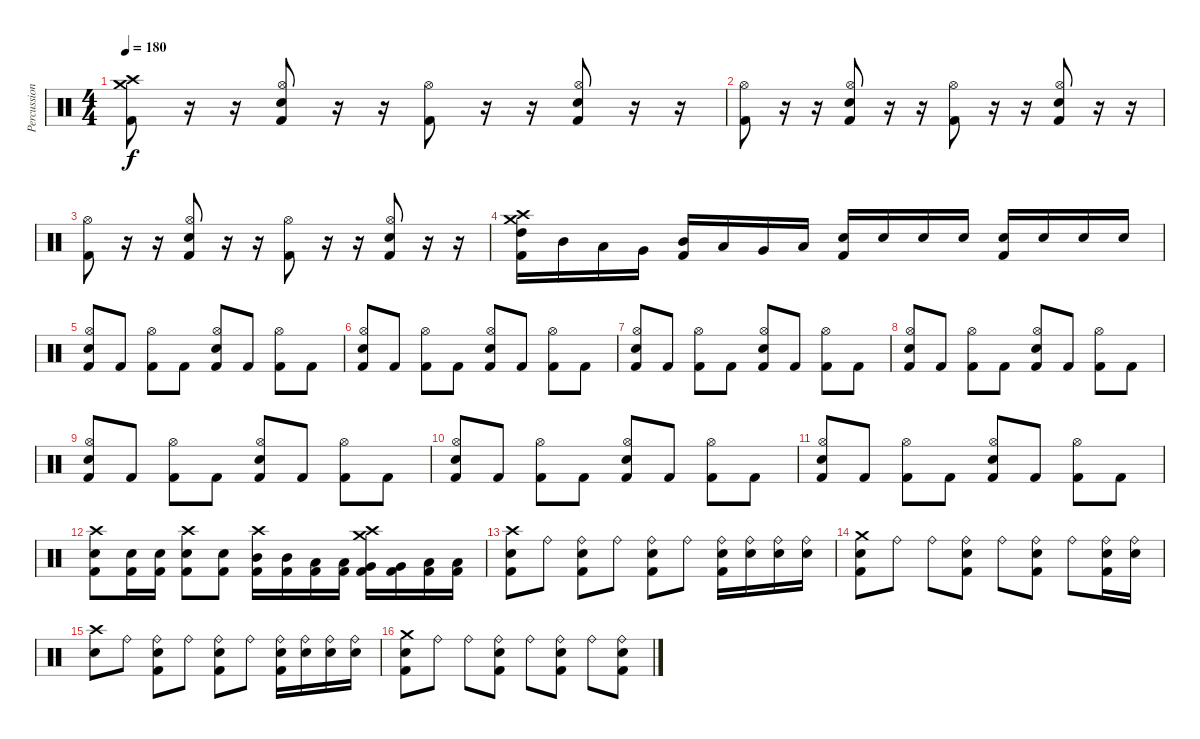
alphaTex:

\track ("Percussion" "Percussion") {instrument percussion}
\staff {score}
\articulation defaults
\ts (4 4)
\tempo 180
\clef neutral
\ks c
("Crash high (hit)" "Crash medium (hit)" "Kick (hit) 2").8{dy f} r.16 r.16 ("Hi-Hat (open)" "Electric Snare (hit)" "Kick (hit) 2").8 r.16 r.16 ("Hi-Hat (open)" "Kick (hit) 2").8 r.16 r.16 ("Hi-Hat (open)" "Electric Snare (hit)" "Kick (hit) 2").8 r.16 r.16 |
("Hi-Hat (open)" "Kick (hit) 2").8 r.16 r.16 ("Hi-Hat (open)" "Electric Snare (hit)" "Kick (hit) 2").8 r.16 r.16 ("Hi-Hat (open)" "Kick (hit) 2").8 r.16 r.16 ("Hi-Hat (open)" "Electric Snare (hit)" "Kick (hit) 2").8 r.16 r.16 |
("Hi-Hat (open)" "Kick (hit) 2").8 r.16 r.16 ("Hi-Hat (open)" "Electric Snare (hit)" "Kick (hit) 2").8 r.16 r.16 ("Hi-Hat (open)" "Kick (hit) 2").8 r.16 r.16 ("Hi-Hat (open)" "Electric Snare (hit)" "Kick (hit) 2").8 r.16 r.16 |
("Crash medium (hit)" "Crash high (hit)" "High Tom (hit)" "Kick (hit) 2").16 "Mid Tom (hit)".16 "Low Tom (hit)".16 "Very Low Tom (hit)".16 ("Mid Tom (hit)" "Kick (hit) 2").16 "Low Tom (hit)".16 "Very Low Tom (hit)".16 "Low Floor Tom (hit)".16 ("Electric Snare (hit)" "Kick (hit) 2").16 "Electric Snare (hit)".16 "Electric Snare (hit)".16 "Electric Snare (hit)".16 ("Electric Snare (hit)" "Kick (hit) 2").16 "Electric Snare (hit)".16 "Electric Snare (hit)".16 "Electric Snare (hit)".16 |
("Hi-Hat (open)" "Electric Snare (hit)" "Kick (hit) 2").8 "Kick (hit) 2".8 ("Hi-Hat (open)" "Kick (hit) 2").8 "Kick (hit) 2".8 ("Hi-Hat (open)" "Electric Snare (hit)" "Kick (hit) 2").8 "Kick (hit) 2".8 ("Hi-Hat (open)" "Kick (hit) 2").8 "Kick (hit) 2".8 |
("Hi-Hat (open)" "Electric Snare (hit)" "Kick (hit) 2").8 "Kick (hit) 2".8 ("Hi-Hat (open)" "Kick (hit) 2").8 "Kick (hit) 2".8 ("Hi-Hat (open)" "Electric Snare (hit)" "Kick (hit) 2").8 "Kick (hit) 2".8 ("Hi-Hat (open)" "Kick (hit) 2").8 "Kick (hit) 2".8 |
("Hi-Hat (open)" "Electric Snare (hit)" "Kick (hit) 2").8 "Kick (hit) 2".8 ("Hi-Hat (open)" "Kick (hit) 2").8 "Kick (hit) 2".8 ("Hi-Hat (open)" "Electric Snare (hit)" "Kick (hit) 2").8 "Kick (hit) 2".8 ("Hi-Hat (open)" "Kick (hit) 2").8 "Kick (hit) 2".8 |
("Hi-Hat (open)" "Electric Snare (hit)" "Kick (hit) 2").8 "Kick (hit) 2".8 ("Hi-Hat (open)" "Kick (hit) 2").8 "Kick (hit) 2".8 ("Hi-Hat (open)" "Electric Snare (hit)" "Kick (hit) 2").8 "Kick (hit) 2".8 ("Hi-Hat (open)" "Kick (hit) 2").8 "Kick (hit) 2".8 |
("Hi-Hat (open)" "Electric Snare (hit)" "Kick (hit) 2").8 "Kick (hit) 2".8 ("Hi-Hat (open)" "Kick (hit) 2").8 "Kick (hit) 2".8 ("Hi-Hat (open)" "Electric Snare (hit)" "Kick (hit) 2").8 "Kick (hit) 2".8 ("Hi-Hat (open)" "Kick (hit) 2").8 "Kick (hit) 2".8 |
("Hi-Hat (open)" "Electric Snare (hit)" "Kick (hit) 2").8 "Kick (hit) 2".8 ("Hi-Hat (open)" "Kick (hit) 2").8 "Kick (hit) 2".8 ("Hi-Hat (open)" "Electric Snare (hit)" "Kick (hit) 2").8 "Kick (hit) 2".8 ("Hi-Hat (open)" "Kick (hit) 2").8 "Kick (hit) 2".8 |
("Hi-Hat (open)" "Electric Snare (hit)" "Kick (hit) 2").8 "Kick (hit) 2".8 ("Hi-Hat (open)" "Kick (hit) 2").8 "Kick (hit) 2".8 ("Hi-Hat (open)" "Electric Snare (hit)" "Kick (hit) 2").8 "Kick (hit) 2".8 ("Hi-Hat (open)" "Kick (hit) 2").8 "Kick (hit) 2".8 |
("Crash high (hit)" "Electric Snare (hit)" "Kick (hit) 2").8 ("Electric Snare (hit)" "Kick (hit) 2").16 ("Electric Snare (hit)" "Kick (hit) 2").16 ("Crash high (hit)" "Electric Snare (hit)" "Kick (hit) 2").8 ("Electric Snare (hit)" "Kick (hit) 2").8 ("Crash high (hit)" "Mid Tom (hit)" "Kick (hit) 2").16 ("Mid Tom (hit)" "Kick (hit) 2").16 ("Low Tom (hit)" "Kick (hit) 2").16 ("Low Tom (hit)" "Kick (hit) 2").16 ("Crash high (hit)" "Crash medium (hit)" "Very Low Tom (hit)" "Kick (hit) 2").16 ("Very Low Tom (hit)" "Kick (hit) 2").16 ("Low Floor Tom (hit)" "Kick (hit) 2").16 ("Low Floor Tom (hit)" "Kick (hit) 2").16 |
("Crash high (hit)" "Electric Snare (hit)" "Kick (hit) 2").8 "Ride (bell)".8 ("Ride (bell)" "Electric Snare (hit)" "Kick (hit) 2").8 "Ride (bell)".8 ("Ride (bell)" "Electric Snare (hit)" "Kick (hit) 2").8 "Ride (bell)".8 ("Ride (bell)" "Electric Snare (hit)" "Kick (hit) 2").16 ("Ride (bell)" "Electric Snare (hit)").16 ("Ride (bell)" "Electric Snare (hit)").16 ("Ride (bell)" "Electric Snare (hit)").16 |
("Crash medium (hit)" "Electric Snare (hit)" "Kick (hit) 2").8 "Ride (bell)".8 "Ride (bell)".8 ("Ride (bell)" "Electric Snare (hit)" "Kick (hit) 2").8 "Ride (bell)".8 ("Ride (bell)" "Electric Snare (hit)" "Kick (hit) 2").8 "Ride (bell)".8 ("Ride (bell)" "Electric Snare (hit)" "Kick (hit) 2").16 ("Ride (bell)" "Electric Snare (hit)").16 |
("Crash high (hit)" "Electric Snare (hit)").8 "Ride (bell)".8 ("Ride (bell)" "Electric Snare (hit)" "Kick (hit) 2").8 "Ride (bell)".8 ("Ride (bell)" "Electric Snare (hit)" "Kick (hit) 2").8 "Ride (bell)".8 ("Ride (bell)" "Electric Snare (hit)" "Kick (hit) 2").16 ("Ride (bell)" "Electric Snare (hit)").16 ("Ride (bell)" "Electric Snare (hit)").16 ("Ride (bell)" "Electric Snare (hit)").16 |
("Crash medium (hit)" "Electric Snare (hit)" "Kick (hit) 2").8 "Ride (bell)".8 "Ride (bell)".8 ("Ride (bell)" "Electric Snare (hit)" "Kick (hit) 2").8 "Ride (bell)".8 ("Ride (bell)" "Electric Snare (hit)" "Kick (hit) 2").8 "Ride (bell)".8 ("Ride (bell)" "Electric Snare (hit)" "Kick (hit) 2").8
